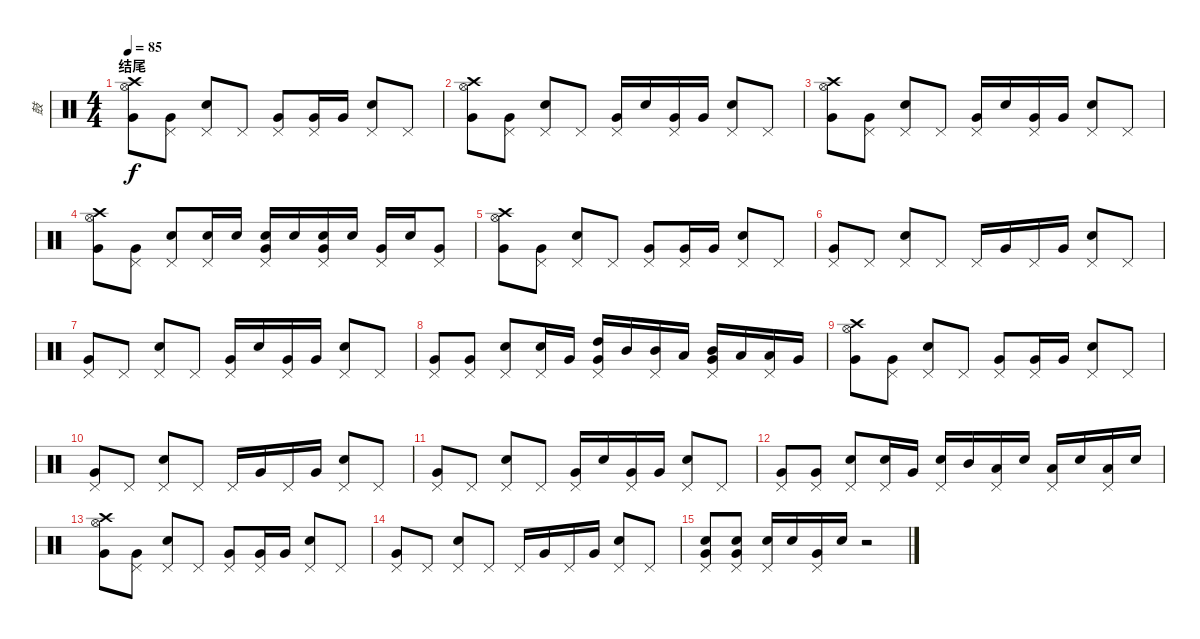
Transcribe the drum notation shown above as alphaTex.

\track ("鼓" "鼓") {instrument percussion}
\staff {score}
\articulation defaults
\ts (4 4)
\section ("" "结尾")
\tempo 85
\clef neutral
\ks c
("Crash high (hit)" "Very Low Tom (hit)" "Hi-Hat (open)").8{dy f} ("Very Low Tom (hit)" "Pedal Hi-Hat (hit)").8 ("Snare (hit) 2" "Pedal Hi-Hat (hit)").8 "Pedal Hi-Hat (hit)".8 ("Very Low Tom (hit)" "Pedal Hi-Hat (hit)").8 ("Very Low Tom (hit)" "Pedal Hi-Hat (hit)").16 "Very Low Tom (hit)".16 ("Snare (hit) 2" "Pedal Hi-Hat (hit)").8 "Pedal Hi-Hat (hit)".8 |
("Crash high (hit)" "Very Low Tom (hit)" "Hi-Hat (open)").8 ("Very Low Tom (hit)" "Pedal Hi-Hat (hit)").8 ("Snare (hit) 2" "Pedal Hi-Hat (hit)").8 "Pedal Hi-Hat (hit)".8 ("Very Low Tom (hit)" "Pedal Hi-Hat (hit)").16 "Snare (hit) 2".16 ("Very Low Tom (hit)" "Pedal Hi-Hat (hit)").16 "Very Low Tom (hit)".16 ("Snare (hit) 2" "Pedal Hi-Hat (hit)").8 "Pedal Hi-Hat (hit)".8 |
("Crash high (hit)" "Very Low Tom (hit)" "Hi-Hat (open)").8 ("Very Low Tom (hit)" "Pedal Hi-Hat (hit)").8 ("Snare (hit) 2" "Pedal Hi-Hat (hit)").8 "Pedal Hi-Hat (hit)".8 ("Very Low Tom (hit)" "Pedal Hi-Hat (hit)").16 "Snare (hit) 2".16 ("Very Low Tom (hit)" "Pedal Hi-Hat (hit)").16 "Very Low Tom (hit)".16 ("Snare (hit) 2" "Pedal Hi-Hat (hit)").8 "Pedal Hi-Hat (hit)".8 |
("Crash high (hit)" "Very Low Tom (hit)" "Hi-Hat (open)").8 ("Very Low Tom (hit)" "Pedal Hi-Hat (hit)").8 ("Snare (hit) 2" "Pedal Hi-Hat (hit)").8 ("Snare (hit) 2" "Pedal Hi-Hat (hit)").16 "Snare (hit) 2".16 ("Snare (hit) 2" "Very Low Tom (hit)" "Pedal Hi-Hat (hit)").16 "Snare (hit) 2".16 ("Snare (hit) 2" "Very Low Tom (hit)" "Pedal Hi-Hat (hit)").16 "Snare (hit) 2".16 ("Very Low Tom (hit)" "Pedal Hi-Hat (hit)").16 "Snare (hit) 2".16 ("Very Low Tom (hit)" "Pedal Hi-Hat (hit)").8 |
("Crash high (hit)" "Very Low Tom (hit)" "Hi-Hat (open)").8 ("Very Low Tom (hit)" "Pedal Hi-Hat (hit)").8 ("Snare (hit) 2" "Pedal Hi-Hat (hit)").8 "Pedal Hi-Hat (hit)".8 ("Very Low Tom (hit)" "Pedal Hi-Hat (hit)").8 ("Very Low Tom (hit)" "Pedal Hi-Hat (hit)").16 "Very Low Tom (hit)".16 ("Snare (hit) 2" "Pedal Hi-Hat (hit)").8 "Pedal Hi-Hat (hit)".8 |
("Very Low Tom (hit)" "Pedal Hi-Hat (hit)").8 "Pedal Hi-Hat (hit)".8 ("Snare (hit) 2" "Pedal Hi-Hat (hit)").8 "Pedal Hi-Hat (hit)".8 "Pedal Hi-Hat (hit)".16 "Very Low Tom (hit)".16 "Pedal Hi-Hat (hit)".16 "Very Low Tom (hit)".16 ("Snare (hit) 2" "Pedal Hi-Hat (hit)").8 "Pedal Hi-Hat (hit)".8 |
("Very Low Tom (hit)" "Pedal Hi-Hat (hit)").8 "Pedal Hi-Hat (hit)".8 ("Snare (hit) 2" "Pedal Hi-Hat (hit)").8 "Pedal Hi-Hat (hit)".8 ("Very Low Tom (hit)" "Pedal Hi-Hat (hit)").16 "Snare (hit) 2".16 ("Very Low Tom (hit)" "Pedal Hi-Hat (hit)").16 "Very Low Tom (hit)".16 ("Snare (hit) 2" "Pedal Hi-Hat (hit)").8 "Pedal Hi-Hat (hit)".8 |
("Very Low Tom (hit)" "Pedal Hi-Hat (hit)").8 ("Very Low Tom (hit)" "Pedal Hi-Hat (hit)").8 ("Snare (hit) 2" "Pedal Hi-Hat (hit)").8 ("Snare (hit) 2" "Pedal Hi-Hat (hit)").16 "Very Low Tom (hit)".16 ("High Tom (hit)" "Very Low Tom (hit)" "Pedal Hi-Hat (hit)").16 "Mid Tom (hit)".16 ("Mid Tom (hit)" "Pedal Hi-Hat (hit)").16 "Low Tom (hit)".16 ("Mid Tom (hit)" "Very Low Tom (hit)" "Pedal Hi-Hat (hit)").16 "Low Tom (hit)".16 ("Low Tom (hit)" "Pedal Hi-Hat (hit)").16 "Very Low Tom (hit)".16 |
("Crash high (hit)" "Very Low Tom (hit)" "Hi-Hat (open)").8 ("Very Low Tom (hit)" "Pedal Hi-Hat (hit)").8 ("Snare (hit) 2" "Pedal Hi-Hat (hit)").8 "Pedal Hi-Hat (hit)".8 ("Very Low Tom (hit)" "Pedal Hi-Hat (hit)").8 ("Very Low Tom (hit)" "Pedal Hi-Hat (hit)").16 "Very Low Tom (hit)".16 ("Snare (hit) 2" "Pedal Hi-Hat (hit)").8 "Pedal Hi-Hat (hit)".8 |
("Very Low Tom (hit)" "Pedal Hi-Hat (hit)").8 "Pedal Hi-Hat (hit)".8 ("Snare (hit) 2" "Pedal Hi-Hat (hit)").8 "Pedal Hi-Hat (hit)".8 "Pedal Hi-Hat (hit)".16 "Very Low Tom (hit)".16 "Pedal Hi-Hat (hit)".16 "Very Low Tom (hit)".16 ("Snare (hit) 2" "Pedal Hi-Hat (hit)").8 "Pedal Hi-Hat (hit)".8 |
("Very Low Tom (hit)" "Pedal Hi-Hat (hit)").8 "Pedal Hi-Hat (hit)".8 ("Snare (hit) 2" "Pedal Hi-Hat (hit)").8 "Pedal Hi-Hat (hit)".8 ("Very Low Tom (hit)" "Pedal Hi-Hat (hit)").16 "Snare (hit) 2".16 ("Very Low Tom (hit)" "Pedal Hi-Hat (hit)").16 "Very Low Tom (hit)".16 ("Snare (hit) 2" "Pedal Hi-Hat (hit)").8 "Pedal Hi-Hat (hit)".8 |
("Very Low Tom (hit)" "Pedal Hi-Hat (hit)").8 ("Very Low Tom (hit)" "Pedal Hi-Hat (hit)").8 ("Snare (hit) 2" "Pedal Hi-Hat (hit)").8 ("Snare (hit) 2" "Pedal Hi-Hat (hit)").16 "Very Low Tom (hit)".16 ("Snare (hit) 2" "Pedal Hi-Hat (hit)").16 "Mid Tom (hit)".16 ("Low Tom (hit)" "Pedal Hi-Hat (hit)").16 "Snare (hit) 2".16 ("Low Tom (hit)" "Pedal Hi-Hat (hit)").16 "Snare (hit) 2".16 ("Low Tom (hit)" "Pedal Hi-Hat (hit)").16 "Snare (hit) 2".16 |
("Crash high (hit)" "Very Low Tom (hit)" "Hi-Hat (open)").8 ("Very Low Tom (hit)" "Pedal Hi-Hat (hit)").8 ("Snare (hit) 2" "Pedal Hi-Hat (hit)").8 "Pedal Hi-Hat (hit)".8 ("Very Low Tom (hit)" "Pedal Hi-Hat (hit)").8 ("Very Low Tom (hit)" "Pedal Hi-Hat (hit)").16 "Very Low Tom (hit)".16 ("Snare (hit) 2" "Pedal Hi-Hat (hit)").8 "Pedal Hi-Hat (hit)".8 |
("Very Low Tom (hit)" "Pedal Hi-Hat (hit)").8 "Pedal Hi-Hat (hit)".8 ("Snare (hit) 2" "Pedal Hi-Hat (hit)").8 "Pedal Hi-Hat (hit)".8 "Pedal Hi-Hat (hit)".16 "Very Low Tom (hit)".16 "Pedal Hi-Hat (hit)".16 "Very Low Tom (hit)".16 ("Snare (hit) 2" "Pedal Hi-Hat (hit)").8 "Pedal Hi-Hat (hit)".8 |
("Snare (hit) 2" "Very Low Tom (hit)" "Pedal Hi-Hat (hit)").8 ("Snare (hit) 2" "Very Low Tom (hit)" "Pedal Hi-Hat (hit)").8 ("Snare (hit) 2" "Pedal Hi-Hat (hit)").16 "Snare (hit) 2".16 ("Very Low Tom (hit)" "Pedal Hi-Hat (hit)").16 "Snare (hit) 2".16 r.2
